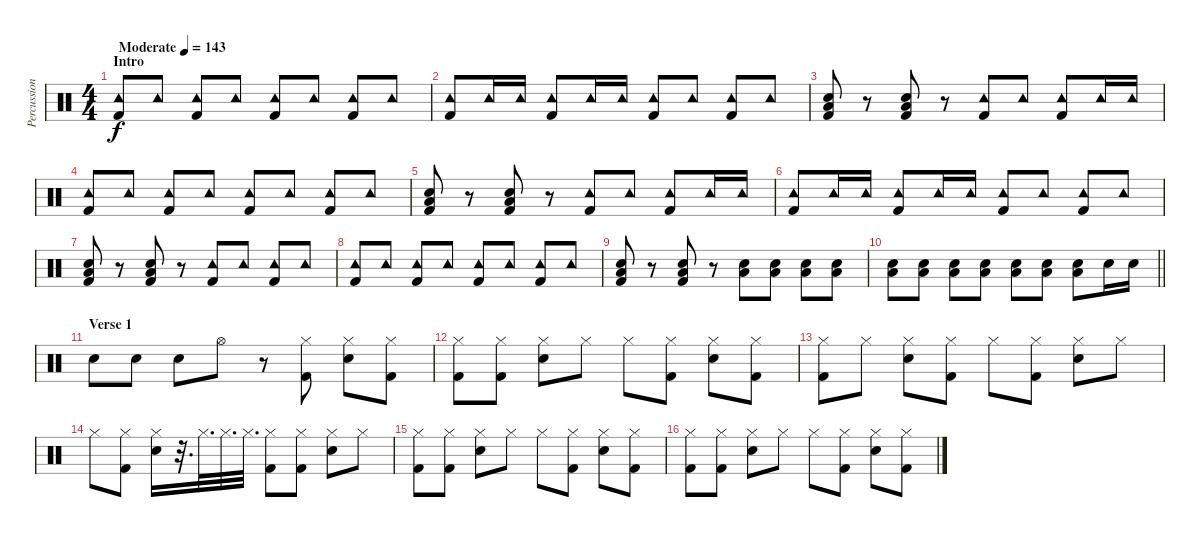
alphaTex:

\track ("Percussion" "Percussion") {instrument percussion}
\staff {score}
\articulation defaults
\ts (4 4)
\section ("" "Intro")
\tempo (143 "Moderate")
\clef neutral
\ks c
("Tambourine (hit)" "Kick (hit) 2").8{dy f} "Tambourine (hit)".8 ("Tambourine (hit)" "Kick (hit) 2").8 "Tambourine (hit)".8 ("Tambourine (hit)" "Kick (hit) 2").8 "Tambourine (hit)".8 ("Tambourine (hit)" "Kick (hit) 2").8 "Tambourine (hit)".8 |
("Tambourine (hit)" "Kick (hit) 2").8 "Tambourine (hit)".16 "Tambourine (hit)".16 ("Tambourine (hit)" "Kick (hit) 2").8 "Tambourine (hit)".16 "Tambourine (hit)".16 ("Tambourine (hit)" "Kick (hit) 2").8 "Tambourine (hit)".8 ("Tambourine (hit)" "Kick (hit) 2").8 "Tambourine (hit)".8 |
("Low Floor Tom (hit)" "Snare (hit) 2" "Kick (hit) 2").8 r.8 ("Low Floor Tom (hit)" "Snare (hit) 2" "Kick (hit) 2").8 r.8 ("Tambourine (hit)" "Kick (hit) 2").8 "Tambourine (hit)".8 ("Tambourine (hit)" "Kick (hit) 2").8 "Tambourine (hit)".16 "Tambourine (hit)".16 |
("Tambourine (hit)" "Kick (hit) 2").8 "Tambourine (hit)".8 ("Tambourine (hit)" "Kick (hit) 2").8 "Tambourine (hit)".8 ("Tambourine (hit)" "Kick (hit) 2").8 "Tambourine (hit)".8 ("Tambourine (hit)" "Kick (hit) 2").8 "Tambourine (hit)".8 |
("Low Floor Tom (hit)" "Snare (hit) 2" "Kick (hit) 2").8 r.8 ("Low Floor Tom (hit)" "Snare (hit) 2" "Kick (hit) 2").8 r.8 ("Tambourine (hit)" "Kick (hit) 2").8 "Tambourine (hit)".8 ("Tambourine (hit)" "Kick (hit) 2").8 "Tambourine (hit)".16 "Tambourine (hit)".16 |
("Tambourine (hit)" "Kick (hit) 2").8 "Tambourine (hit)".16 "Tambourine (hit)".16 ("Tambourine (hit)" "Kick (hit) 2").8 "Tambourine (hit)".16 "Tambourine (hit)".16 ("Tambourine (hit)" "Kick (hit) 2").8 "Tambourine (hit)".8 ("Tambourine (hit)" "Kick (hit) 2").8 "Tambourine (hit)".8 |
("Low Floor Tom (hit)" "Snare (hit) 2" "Kick (hit) 2").8 r.8 ("Low Floor Tom (hit)" "Snare (hit) 2" "Kick (hit) 2").8 r.8 ("Tambourine (hit)" "Kick (hit) 2").8 "Tambourine (hit)".8 ("Tambourine (hit)" "Kick (hit) 2").8 "Tambourine (hit)".8 |
("Tambourine (hit)" "Kick (hit) 2").8 "Tambourine (hit)".8 ("Tambourine (hit)" "Kick (hit) 2").8 "Tambourine (hit)".8 ("Tambourine (hit)" "Kick (hit) 2").8 "Tambourine (hit)".8 ("Tambourine (hit)" "Kick (hit) 2").8 "Tambourine (hit)".8 |
("Low Floor Tom (hit)" "Snare (hit) 2" "Kick (hit) 2").8 r.8 ("Low Floor Tom (hit)" "Snare (hit) 2" "Kick (hit) 2").8 r.8 ("Low Floor Tom (hit)" "Snare (hit) 2").8 ("Low Floor Tom (hit)" "Snare (hit) 2").8 ("Low Floor Tom (hit)" "Snare (hit) 2").8 ("Low Floor Tom (hit)" "Snare (hit) 2").8 |
\barLineRight lightlight
("Low Floor Tom (hit)" "Snare (hit) 2").8 ("Low Floor Tom (hit)" "Snare (hit) 2").8 ("Low Floor Tom (hit)" "Snare (hit) 2").8 ("Low Floor Tom (hit)" "Snare (hit) 2").8 ("Low Floor Tom (hit)" "Snare (hit) 2").8 ("Low Floor Tom (hit)" "Snare (hit) 2").8 ("Low Floor Tom (hit)" "Snare (hit) 2").8 "Snare (hit) 2".16 "Snare (hit) 2".16 |
\section ("" "Verse 1")
"Snare (hit) 2".8 "Snare (hit) 2".8 "Snare (hit) 2".8 "Hi-Hat (open)".8 r.8 ("Hi-Hat (closed)" "Kick (hit) 2").8 ("Hi-Hat (closed)" "Snare (hit) 2").8 ("Hi-Hat (closed)" "Kick (hit) 2").8 |
("Hi-Hat (closed)" "Kick (hit) 2").8 ("Hi-Hat (closed)" "Kick (hit) 2").8 ("Hi-Hat (closed)" "Snare (hit) 2").8 "Hi-Hat (closed)".8 "Hi-Hat (closed)".8 ("Hi-Hat (closed)" "Kick (hit) 2").8 ("Hi-Hat (closed)" "Snare (hit) 2").8 ("Hi-Hat (closed)" "Kick (hit) 2").8 |
("Hi-Hat (closed)" "Kick (hit) 2").8 "Hi-Hat (closed)".8 ("Hi-Hat (closed)" "Snare (hit) 2").8 ("Hi-Hat (closed)" "Kick (hit) 2").8 "Hi-Hat (closed)".8 ("Hi-Hat (closed)" "Kick (hit) 2").8 ("Hi-Hat (closed)" "Snare (hit) 2").8 "Hi-Hat (closed)".8 |
"Hi-Hat (closed)".8 ("Hi-Hat (closed)" "Kick (hit) 2").8 ("Hi-Hat (closed)" "Snare (hit) 2").16 r.32{d} "Hi-Hat (closed)".32{d} "Hi-Hat (closed)".32{d} "Hi-Hat (closed)".32{d} ("Hi-Hat (closed)" "Kick (hit) 2").8 ("Hi-Hat (closed)" "Kick (hit) 2").8 ("Hi-Hat (closed)" "Snare (hit) 2").8 "Hi-Hat (closed)".8 |
("Hi-Hat (closed)" "Kick (hit) 2").8 ("Hi-Hat (closed)" "Kick (hit) 2").8 ("Hi-Hat (closed)" "Snare (hit) 2").8 "Hi-Hat (closed)".8 "Hi-Hat (closed)".8 ("Hi-Hat (closed)" "Kick (hit) 2").8 ("Hi-Hat (closed)" "Snare (hit) 2").8 ("Hi-Hat (closed)" "Kick (hit) 2").8 |
("Hi-Hat (closed)" "Kick (hit) 2").8 ("Hi-Hat (closed)" "Kick (hit) 2").8 ("Hi-Hat (closed)" "Snare (hit) 2").8 "Hi-Hat (closed)".8 "Hi-Hat (closed)".8 ("Hi-Hat (closed)" "Kick (hit) 2").8 ("Hi-Hat (closed)" "Snare (hit) 2").8 ("Hi-Hat (closed)" "Kick (hit) 2").8
